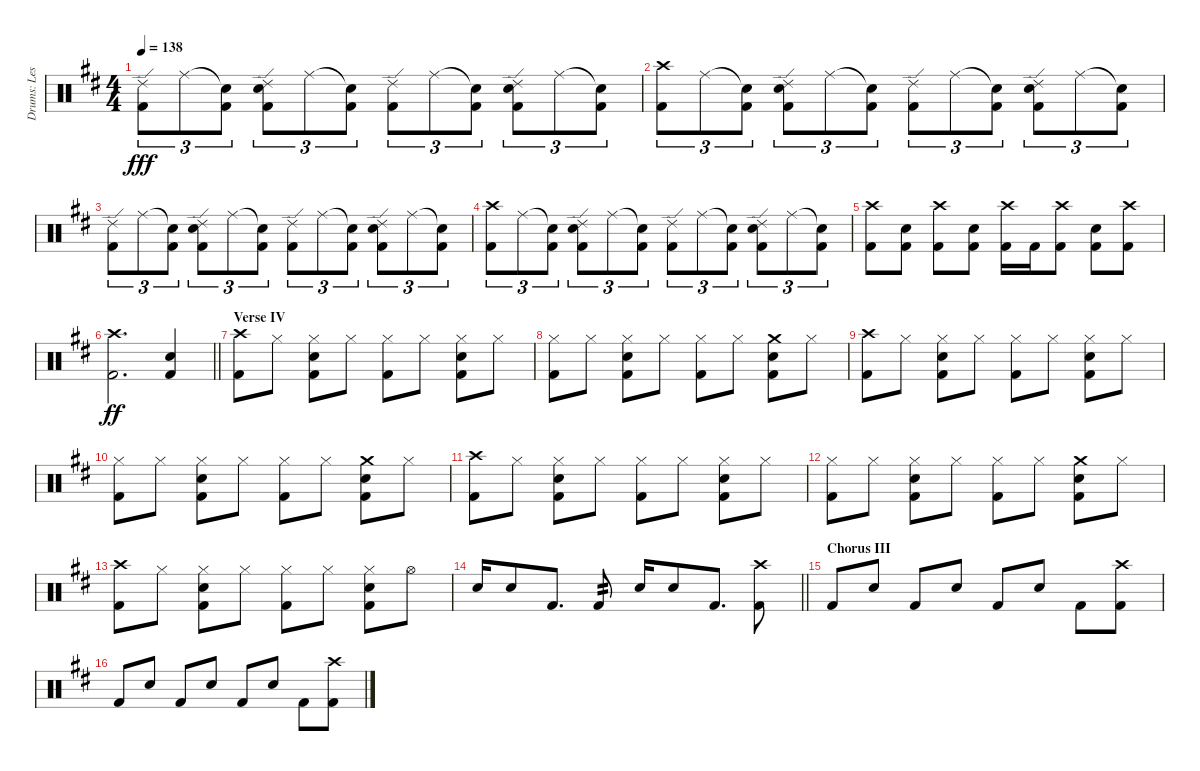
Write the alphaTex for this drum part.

\track ("Drums: Les" "Drums: Les") {instrument percussion}
\staff {score}
\articulation defaults
\ts (4 4)
\tempo 138
\clef neutral
\ks d
("Ride (edge) 2" "Kick (hit) 2").8{tu (3 2) dy fff} "Ride (middle)".8{tu (3 2)} ("Snare (hit)"{t} "Kick (hit) 2").8{tu (3 2)} ("Ride (edge) 2" "Snare (hit) 2" "Kick (hit) 2").8{tu (3 2)} "Ride (middle)".8{tu (3 2)} ("Snare (hit)"{t} "Kick (hit) 2").8{tu (3 2)} ("Ride (edge) 2" "Kick (hit) 2").8{tu (3 2)} "Ride (middle)".8{tu (3 2)} ("Snare (hit)"{t} "Kick (hit) 2").8{tu (3 2)} ("Ride (edge) 2" "Snare (hit) 2" "Kick (hit) 2").8{tu (3 2)} "Ride (middle)".8{tu (3 2)} ("Snare (hit)"{t} "Kick (hit) 2").8{tu (3 2)} |
("Crash high (hit)" "Kick (hit) 2").8{tu (3 2)} "Ride (middle)".8{tu (3 2)} ("Snare (hit)"{t} "Kick (hit) 2").8{tu (3 2)} ("Ride (edge) 2" "Snare (hit) 2" "Kick (hit) 2").8{tu (3 2)} "Ride (middle)".8{tu (3 2)} ("Snare (hit)"{t} "Kick (hit) 2").8{tu (3 2)} ("Ride (edge) 2" "Kick (hit) 2").8{tu (3 2)} "Ride (middle)".8{tu (3 2)} ("Snare (hit)"{t} "Kick (hit) 2").8{tu (3 2)} ("Ride (edge) 2" "Snare (hit) 2" "Kick (hit) 2").8{tu (3 2)} "Ride (middle)".8{tu (3 2)} ("Snare (hit)"{t} "Kick (hit) 2").8{tu (3 2)} |
("Ride (edge) 2" "Kick (hit) 2").8{tu (3 2)} "Ride (middle)".8{tu (3 2)} ("Snare (hit)"{t} "Kick (hit) 2").8{tu (3 2)} ("Ride (edge) 2" "Snare (hit) 2" "Kick (hit) 2").8{tu (3 2)} "Ride (middle)".8{tu (3 2)} ("Snare (hit)"{t} "Kick (hit) 2").8{tu (3 2)} ("Ride (edge) 2" "Kick (hit) 2").8{tu (3 2)} "Ride (middle)".8{tu (3 2)} ("Snare (hit)"{t} "Kick (hit) 2").8{tu (3 2)} ("Ride (edge) 2" "Snare (hit) 2" "Kick (hit) 2").8{tu (3 2)} "Ride (middle)".8{tu (3 2)} ("Snare (hit)"{t} "Kick (hit) 2").8{tu (3 2)} |
("Crash high (hit)" "Kick (hit) 2").8{tu (3 2)} "Ride (middle)".8{tu (3 2)} ("Snare (hit)"{t} "Kick (hit) 2").8{tu (3 2)} ("Ride (edge) 2" "Snare (hit) 2" "Kick (hit) 2").8{tu (3 2)} "Ride (middle)".8{tu (3 2)} ("Snare (hit)"{t} "Kick (hit) 2").8{tu (3 2)} ("Ride (edge) 2" "Kick (hit) 2").8{tu (3 2)} "Ride (middle)".8{tu (3 2)} ("Snare (hit)"{t} "Kick (hit) 2").8{tu (3 2)} ("Ride (edge) 2" "Snare (hit) 2" "Kick (hit) 2").8{tu (3 2)} "Ride (middle)".8{tu (3 2)} ("Snare (hit)"{t} "Kick (hit) 2").8{tu (3 2)} |
("Crash high (hit)" "Kick (hit) 2").8 ("Snare (hit) 2" "Kick (hit) 2").8 ("Crash high (hit)" "Kick (hit) 2").8 ("Snare (hit) 2" "Kick (hit) 2").8 ("Crash high (hit)" "Kick (hit) 2").16 "Kick (hit) 2".16 ("Crash high (hit)" "Kick (hit) 2").8 ("Snare (hit) 2" "Kick (hit) 2").8 ("Crash high (hit)" "Kick (hit) 2").8 |
\barLineRight lightlight
("Crash high (hit)" "Kick (hit) 2").2{d dy ff} ("Snare (hit) 2" "Kick (hit) 2").4 |
\section ("" "Verse IV")
("Crash high (hit)" "Kick (hit) 2").8 "Hi-Hat (closed)".8 ("Hi-Hat (closed)" "Snare (hit) 2" "Kick (hit) 2").8 "Hi-Hat (closed)".8 ("Hi-Hat (closed)" "Kick (hit) 2").8 "Hi-Hat (closed)".8 ("Hi-Hat (closed)" "Snare (hit) 2" "Kick (hit) 2").8 "Hi-Hat (closed)".8 |
("Hi-Hat (closed)" "Kick (hit) 2").8 "Hi-Hat (closed)".8 ("Hi-Hat (closed)" "Snare (hit) 2" "Kick (hit) 2").8 "Hi-Hat (closed)".8 ("Hi-Hat (closed)" "Kick (hit) 2").8 "Hi-Hat (closed)".8 ("Crash medium (hit)" "Snare (hit) 2" "Kick (hit) 2").8 "Hi-Hat (closed)".8 |
("Crash high (hit)" "Kick (hit) 2").8 "Hi-Hat (closed)".8 ("Hi-Hat (closed)" "Snare (hit) 2" "Kick (hit) 2").8 "Hi-Hat (closed)".8 ("Hi-Hat (closed)" "Kick (hit) 2").8 "Hi-Hat (closed)".8 ("Hi-Hat (closed)" "Snare (hit) 2" "Kick (hit) 2").8 "Hi-Hat (closed)".8 |
("Hi-Hat (closed)" "Kick (hit) 2").8 "Hi-Hat (closed)".8 ("Hi-Hat (closed)" "Snare (hit) 2" "Kick (hit) 2").8 "Hi-Hat (closed)".8 ("Hi-Hat (closed)" "Kick (hit) 2").8 "Hi-Hat (closed)".8 ("Crash medium (hit)" "Snare (hit) 2" "Kick (hit) 2").8 "Hi-Hat (closed)".8 |
("Crash high (hit)" "Kick (hit) 2").8 "Hi-Hat (closed)".8 ("Hi-Hat (closed)" "Snare (hit) 2" "Kick (hit) 2").8 "Hi-Hat (closed)".8 ("Hi-Hat (closed)" "Kick (hit) 2").8 "Hi-Hat (closed)".8 ("Hi-Hat (closed)" "Snare (hit) 2" "Kick (hit) 2").8 "Hi-Hat (closed)".8 |
("Hi-Hat (closed)" "Kick (hit) 2").8 "Hi-Hat (closed)".8 ("Hi-Hat (closed)" "Snare (hit) 2" "Kick (hit) 2").8 "Hi-Hat (closed)".8 ("Hi-Hat (closed)" "Kick (hit) 2").8 "Hi-Hat (closed)".8 ("Crash medium (hit)" "Snare (hit) 2" "Kick (hit) 2").8 "Hi-Hat (closed)".8 |
("Crash high (hit)" "Kick (hit) 2").8 "Hi-Hat (closed)".8 ("Hi-Hat (closed)" "Snare (hit) 2" "Kick (hit) 2").8 "Hi-Hat (closed)".8 ("Hi-Hat (closed)" "Kick (hit) 2").8 "Hi-Hat (closed)".8 ("Hi-Hat (closed)" "Snare (hit) 2" "Kick (hit) 2").8 "Hi-Hat (open)".8 |
\barLineRight lightlight "Snare (hit) 2".16 "Snare (hit) 2".8 "Kick (hit) 2".8{d} "Kick (hit) 2".8{tp 2} "Snare (hit) 2".16 "Snare (hit) 2".8 "Kick (hit) 2".8{d}
("Crash high (hit)" "Kick (hit) 2").8 |
\section ("" "Chorus III")
"Kick (hit) 2".8 "Electric Snare (hit)".8 "Kick (hit) 2".8 "Electric Snare (hit)".8 "Kick (hit) 2".8 "Electric Snare (hit)".8 "Kick (hit) 2".8 ("Crash high (hit)" "Kick (hit) 2").8 |
"Kick (hit) 2".8 "Electric Snare (hit)".8 "Kick (hit) 2".8 "Electric Snare (hit)".8 "Kick (hit) 2".8 "Electric Snare (hit)".8 "Kick (hit) 2".8 ("Crash high (hit)" "Kick (hit) 2").8
